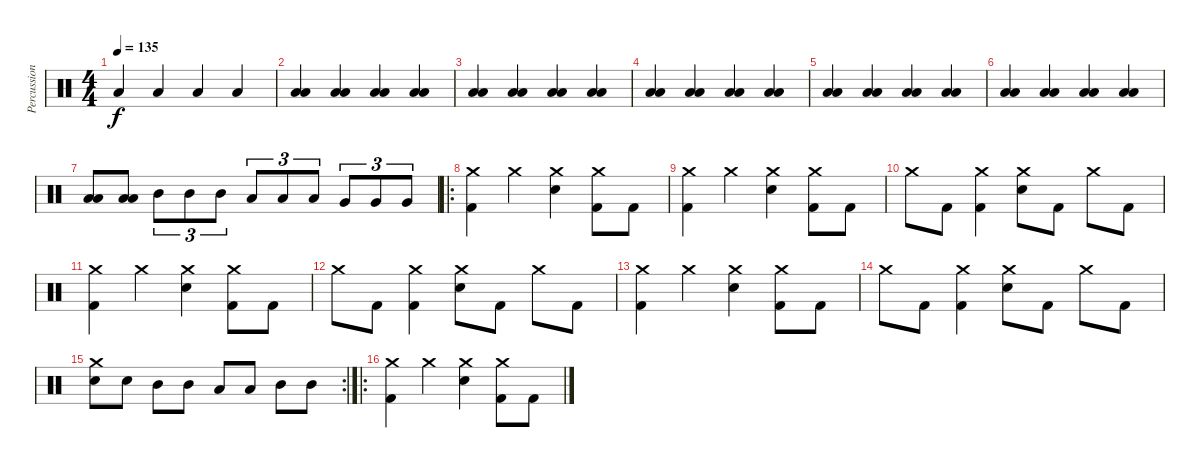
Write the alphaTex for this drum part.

\track ("Percussion" "Percussion") {instrument percussion}
\staff {score}
\articulation defaults
\ts (4 4)
\tempo 135
\clef neutral
\ks c "Low Floor Tom (hit)".4{dy f} "Low Floor Tom (hit)".4 "Low Floor Tom (hit)".4 "Low Floor Tom (hit)".4
|
("Low Floor Tom (hit)" "Low Floor Tom (hit)").4 ("Low Floor Tom (hit)" "Low Floor Tom (hit)").4 ("Low Floor Tom (hit)" "Low Floor Tom (hit)").4 ("Low Floor Tom (hit)" "Low Floor Tom (hit)").4 |
("Low Floor Tom (hit)" "Low Floor Tom (hit)").4 ("Low Floor Tom (hit)" "Low Floor Tom (hit)").4 ("Low Floor Tom (hit)" "Low Floor Tom (hit)").4 ("Low Floor Tom (hit)" "Low Floor Tom (hit)").4 |
("Low Floor Tom (hit)" "Low Floor Tom (hit)").4 ("Low Floor Tom (hit)" "Low Floor Tom (hit)").4 ("Low Floor Tom (hit)" "Low Floor Tom (hit)").4 ("Low Floor Tom (hit)" "Low Floor Tom (hit)").4 |
("Low Floor Tom (hit)" "Low Floor Tom (hit)").4 ("Low Floor Tom (hit)" "Low Floor Tom (hit)").4 ("Low Floor Tom (hit)" "Low Floor Tom (hit)").4 ("Low Floor Tom (hit)" "Low Floor Tom (hit)").4 |
("Low Floor Tom (hit)" "Low Floor Tom (hit)").4 ("Low Floor Tom (hit)" "Low Floor Tom (hit)").4 ("Low Floor Tom (hit)" "Low Floor Tom (hit)").4 ("Low Floor Tom (hit)" "Low Floor Tom (hit)").4 |
("Low Floor Tom (hit)" "Low Floor Tom (hit)").8 ("Low Floor Tom (hit)" "Low Floor Tom (hit)").8 "Mid Tom (hit)".8{tu (3 2)} "Mid Tom (hit)".8{tu (3 2)} "Mid Tom (hit)".8{tu (3 2)} "Low Tom (hit)".8{tu (3 2)} "Low Tom (hit)".8{tu (3 2)} "Low Tom (hit)".8{tu (3 2)} "Very Low Tom (hit)".8{tu (3 2)} "Very Low Tom (hit)".8{tu (3 2)} "Very Low Tom (hit)".8{tu (3 2)} |
\ro
("Crash medium (hit)" "Kick (hit) 2").4 "Crash medium (hit)".4 ("Crash medium (hit)" "Electric Snare (hit)").4 ("Crash medium (hit)" "Kick (hit) 2").8 "Kick (hit) 2".8 |
("Crash medium (hit)" "Kick (hit) 2").4 "Crash medium (hit)".4 ("Crash medium (hit)" "Electric Snare (hit)").4 ("Crash medium (hit)" "Kick (hit) 2").8 "Kick (hit) 2".8 |
"Crash medium (hit)".8 "Kick (hit) 2".8 ("Crash medium (hit)" "Kick (hit) 2").4 ("Crash medium (hit)" "Electric Snare (hit)").8 "Kick (hit) 2".8 "Crash medium (hit)".8 "Kick (hit) 2".8 |
("Crash medium (hit)" "Kick (hit) 2").4 "Crash medium (hit)".4 ("Crash medium (hit)" "Electric Snare (hit)").4 ("Crash medium (hit)" "Kick (hit) 2").8 "Kick (hit) 2".8 |
"Crash medium (hit)".8 "Kick (hit) 2".8 ("Crash medium (hit)" "Kick (hit) 2").4 ("Crash medium (hit)" "Electric Snare (hit)").8 "Kick (hit) 2".8 "Crash medium (hit)".8 "Kick (hit) 2".8 |
("Crash medium (hit)" "Kick (hit) 2").4 "Crash medium (hit)".4 ("Crash medium (hit)" "Electric Snare (hit)").4 ("Crash medium (hit)" "Kick (hit) 2").8 "Kick (hit) 2".8 |
"Crash medium (hit)".8 "Kick (hit) 2".8 ("Crash medium (hit)" "Kick (hit) 2").4 ("Crash medium (hit)" "Electric Snare (hit)").8 "Kick (hit) 2".8 "Crash medium (hit)".8 "Kick (hit) 2".8 |
\rc 2
("Crash medium (hit)" "Electric Snare (hit)").8 "Electric Snare (hit)".8 "Mid Tom (hit)".8 "Mid Tom (hit)".8 "Low Tom (hit)".8 "Low Tom (hit)".8 "Mid Tom (hit)".8 "Mid Tom (hit)".8 |
\ro
("Crash medium (hit)" "Kick (hit) 2").4 "Crash medium (hit)".4 ("Crash medium (hit)" "Electric Snare (hit)").4 ("Crash medium (hit)" "Kick (hit) 2").8 "Kick (hit) 2".8
